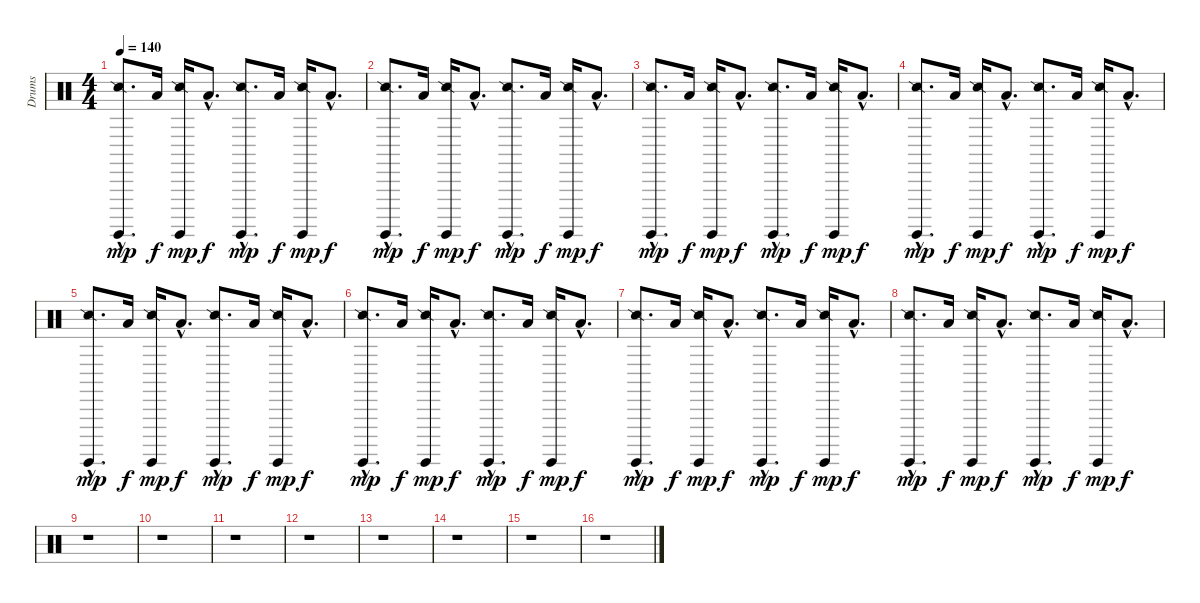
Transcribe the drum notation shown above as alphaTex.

\track ("Drums" "Drums") {instrument percussion}
\staff {score}
\articulation defaults
\ts (4 4)
\tempo 140
\clef neutral
\ks c
("Surdo (hit)"{hac} "Snare (side stick) 2"{hac}).8{d dy mp} "Low Floor Tom (hit)".16{dy f} ("Surdo (hit)" "Snare (side stick) 2").16{dy mp} "Low Floor Tom (hit)"{hac}.8{d dy f} ("Surdo (hit)"{hac} "Snare (side stick) 2"{hac}).8{d dy mp} "Low Floor Tom (hit)".16{dy f} ("Surdo (hit)" "Snare (side stick) 2").16{dy mp} "Low Floor Tom (hit)"{hac}.8{d dy f} |
("Surdo (hit)"{hac} "Snare (side stick) 2"{hac}).8{d dy mp} "Low Floor Tom (hit)".16{dy f} ("Surdo (hit)" "Snare (side stick) 2").16{dy mp} "Low Floor Tom (hit)"{hac}.8{d dy f} ("Surdo (hit)"{hac} "Snare (side stick) 2"{hac}).8{d dy mp} "Low Floor Tom (hit)".16{dy f} ("Surdo (hit)" "Snare (side stick) 2").16{dy mp} "Low Floor Tom (hit)"{hac}.8{d dy f} |
("Surdo (hit)"{hac} "Snare (side stick) 2"{hac}).8{d dy mp} "Low Floor Tom (hit)".16{dy f} ("Surdo (hit)" "Snare (side stick) 2").16{dy mp} "Low Floor Tom (hit)"{hac}.8{d dy f} ("Surdo (hit)"{hac} "Snare (side stick) 2"{hac}).8{d dy mp} "Low Floor Tom (hit)".16{dy f} ("Surdo (hit)" "Snare (side stick) 2").16{dy mp} "Low Floor Tom (hit)"{hac}.8{d dy f} |
("Surdo (hit)"{hac} "Snare (side stick) 2"{hac}).8{d dy mp} "Low Floor Tom (hit)".16{dy f} ("Surdo (hit)" "Snare (side stick) 2").16{dy mp} "Low Floor Tom (hit)"{hac}.8{d dy f} ("Surdo (hit)"{hac} "Snare (side stick) 2"{hac}).8{d dy mp} "Low Floor Tom (hit)".16{dy f} ("Surdo (hit)" "Snare (side stick) 2").16{dy mp} "Low Floor Tom (hit)"{hac}.8{d dy f} |
("Surdo (hit)"{hac} "Snare (side stick) 2"{hac}).8{d dy mp} "Low Floor Tom (hit)".16{dy f} ("Surdo (hit)" "Snare (side stick) 2").16{dy mp} "Low Floor Tom (hit)"{hac}.8{d dy f} ("Surdo (hit)"{hac} "Snare (side stick) 2"{hac}).8{d dy mp} "Low Floor Tom (hit)".16{dy f} ("Surdo (hit)" "Snare (side stick) 2").16{dy mp} "Low Floor Tom (hit)"{hac}.8{d dy f} |
("Surdo (hit)"{hac} "Snare (side stick) 2"{hac}).8{d dy mp} "Low Floor Tom (hit)".16{dy f} ("Surdo (hit)" "Snare (side stick) 2").16{dy mp} "Low Floor Tom (hit)"{hac}.8{d dy f} ("Surdo (hit)"{hac} "Snare (side stick) 2"{hac}).8{d dy mp} "Low Floor Tom (hit)".16{dy f} ("Surdo (hit)" "Snare (side stick) 2").16{dy mp} "Low Floor Tom (hit)"{hac}.8{d dy f} |
("Surdo (hit)"{hac} "Snare (side stick) 2"{hac}).8{d dy mp} "Low Floor Tom (hit)".16{dy f} ("Surdo (hit)" "Snare (side stick) 2").16{dy mp} "Low Floor Tom (hit)"{hac}.8{d dy f} ("Surdo (hit)"{hac} "Snare (side stick) 2"{hac}).8{d dy mp} "Low Floor Tom (hit)".16{dy f} ("Surdo (hit)" "Snare (side stick) 2").16{dy mp} "Low Floor Tom (hit)"{hac}.8{d dy f} |
("Surdo (hit)"{hac} "Snare (side stick) 2"{hac}).8{d dy mp} "Low Floor Tom (hit)".16{dy f} ("Surdo (hit)" "Snare (side stick) 2").16{dy mp} "Low Floor Tom (hit)"{hac}.8{d dy f} ("Surdo (hit)"{hac} "Snare (side stick) 2"{hac}).8{d dy mp} "Low Floor Tom (hit)".16{dy f} ("Surdo (hit)" "Snare (side stick) 2").16{dy mp} "Low Floor Tom (hit)"{hac}.8{d dy f} |
r.1 |
r.1 |
r.1 |
r.1 |
r.1 |
r.1 |
r.1 |
r.1
